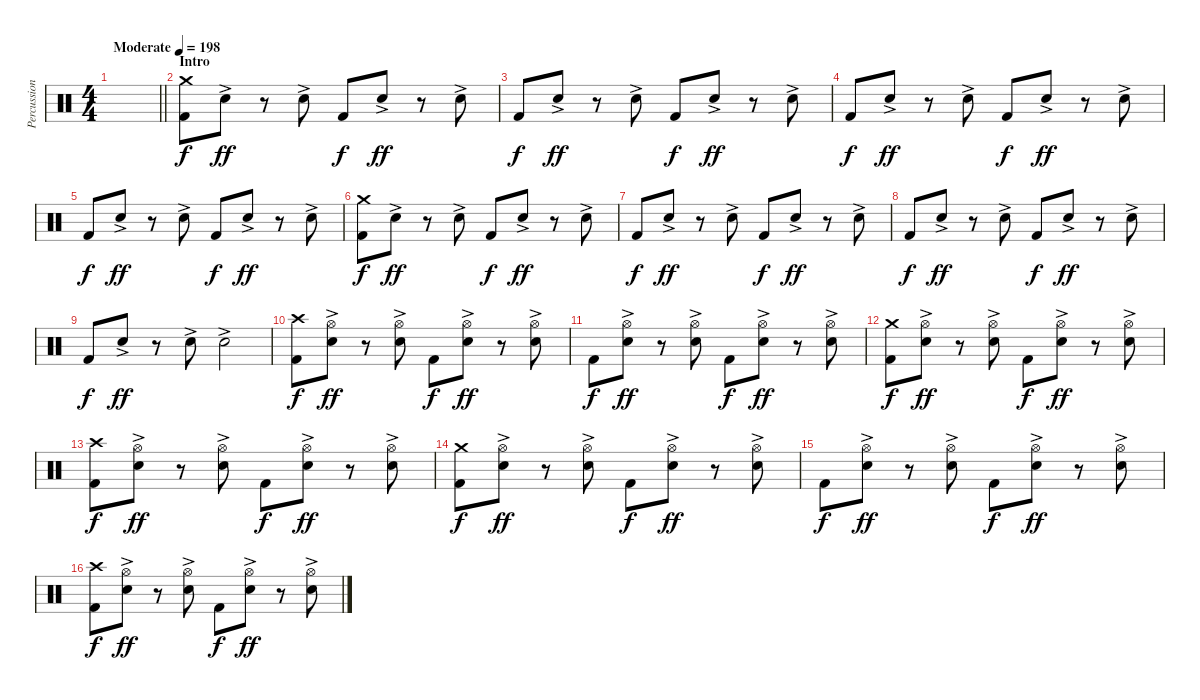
\track ("Percussion" "Percussion") {instrument percussion}
\staff {score}
\articulation defaults
\ts (4 4)
\tempo (198 "Moderate")
\clef neutral
\barLineRight lightlight
\ks c
|
\section ("" "Intro")
("Crash medium (hit)" "Kick (hit) 2").8 "Electric Snare (hit)"{ac}.8{dy ff} r.8 "Electric Snare (hit)"{ac}.8 "Kick (hit) 2".8{dy f} "Electric Snare (hit)"{ac}.8{dy ff} r.8 "Electric Snare (hit)"{ac}.8 |
"Kick (hit) 2".8{dy f} "Electric Snare (hit)"{ac}.8{dy ff} r.8 "Electric Snare (hit)"{ac}.8 "Kick (hit) 2".8{dy f} "Electric Snare (hit)"{ac}.8{dy ff} r.8 "Electric Snare (hit)"{ac}.8 |
"Kick (hit) 2".8{dy f} "Electric Snare (hit)"{ac}.8{dy ff} r.8 "Electric Snare (hit)"{ac}.8 "Kick (hit) 2".8{dy f} "Electric Snare (hit)"{ac}.8{dy ff} r.8 "Electric Snare (hit)"{ac}.8 |
"Kick (hit) 2".8{dy f} "Electric Snare (hit)"{ac}.8{dy ff} r.8 "Electric Snare (hit)"{ac}.8 "Kick (hit) 2".8{dy f} "Electric Snare (hit)"{ac}.8{dy ff} r.8 "Electric Snare (hit)"{ac}.8 |
("Crash medium (hit)" "Kick (hit) 2").8{dy f} "Electric Snare (hit)"{ac}.8{dy ff} r.8 "Electric Snare (hit)"{ac}.8 "Kick (hit) 2".8{dy f} "Electric Snare (hit)"{ac}.8{dy ff} r.8 "Electric Snare (hit)"{ac}.8 |
"Kick (hit) 2".8{dy f} "Electric Snare (hit)"{ac}.8{dy ff} r.8 "Electric Snare (hit)"{ac}.8 "Kick (hit) 2".8{dy f} "Electric Snare (hit)"{ac}.8{dy ff} r.8 "Electric Snare (hit)"{ac}.8 |
"Kick (hit) 2".8{dy f} "Electric Snare (hit)"{ac}.8{dy ff} r.8 "Electric Snare (hit)"{ac}.8 "Kick (hit) 2".8{dy f} "Electric Snare (hit)"{ac}.8{dy ff} r.8 "Electric Snare (hit)"{ac}.8 |
"Kick (hit) 2".8{dy f} "Electric Snare (hit)"{ac}.8{dy ff} r.8 "Electric Snare (hit)"{ac}.8 "Electric Snare (hit)"{ac}.2 |
("Crash high (hit)" "Kick (hit) 2").8{dy f} ("Hi-Hat (open)" "Electric Snare (hit)"{ac}).8{dy ff} r.8 ("Hi-Hat (open)" "Electric Snare (hit)"{ac}).8 "Kick (hit) 2".8{dy f} ("Hi-Hat (open)" "Electric Snare (hit)"{ac}).8{dy ff} r.8 ("Hi-Hat (open)" "Electric Snare (hit)"{ac}).8 |
"Kick (hit) 2".8{dy f} ("Hi-Hat (open)" "Electric Snare (hit)"{ac}).8{dy ff} r.8 ("Hi-Hat (open)" "Electric Snare (hit)"{ac}).8 "Kick (hit) 2".8{dy f} ("Hi-Hat (open)" "Electric Snare (hit)"{ac}).8{dy ff} r.8 ("Hi-Hat (open)" "Electric Snare (hit)"{ac}).8 |
("Crash medium (hit)" "Kick (hit) 2").8{dy f} ("Hi-Hat (open)" "Electric Snare (hit)"{ac}).8{dy ff} r.8 ("Hi-Hat (open)" "Electric Snare (hit)"{ac}).8 "Kick (hit) 2".8{dy f} ("Hi-Hat (open)" "Electric Snare (hit)"{ac}).8{dy ff} r.8 ("Hi-Hat (open)" "Electric Snare (hit)"{ac}).8 |
("Crash high (hit)" "Kick (hit) 2").8{dy f} ("Hi-Hat (open)" "Electric Snare (hit)"{ac}).8{dy ff} r.8 ("Hi-Hat (open)" "Electric Snare (hit)"{ac}).8 "Kick (hit) 2".8{dy f} ("Hi-Hat (open)" "Electric Snare (hit)"{ac}).8{dy ff} r.8 ("Hi-Hat (open)" "Electric Snare (hit)"{ac}).8 |
("Crash medium (hit)" "Kick (hit) 2").8{dy f} ("Hi-Hat (open)" "Electric Snare (hit)"{ac}).8{dy ff} r.8 ("Hi-Hat (open)" "Electric Snare (hit)"{ac}).8 "Kick (hit) 2".8{dy f} ("Hi-Hat (open)" "Electric Snare (hit)"{ac}).8{dy ff} r.8 ("Hi-Hat (open)" "Electric Snare (hit)"{ac}).8 |
"Kick (hit) 2".8{dy f} ("Hi-Hat (open)" "Electric Snare (hit)"{ac}).8{dy ff} r.8 ("Hi-Hat (open)" "Electric Snare (hit)"{ac}).8 "Kick (hit) 2".8{dy f} ("Hi-Hat (open)" "Electric Snare (hit)"{ac}).8{dy ff} r.8 ("Hi-Hat (open)" "Electric Snare (hit)"{ac}).8 |
("Crash high (hit)" "Kick (hit) 2").8{dy f} ("Hi-Hat (open)" "Electric Snare (hit)"{ac}).8{dy ff} r.8 ("Hi-Hat (open)" "Electric Snare (hit)"{ac}).8 "Kick (hit) 2".8{dy f} ("Hi-Hat (open)" "Electric Snare (hit)"{ac}).8{dy ff} r.8 ("Hi-Hat (open)" "Electric Snare (hit)"{ac}).8
